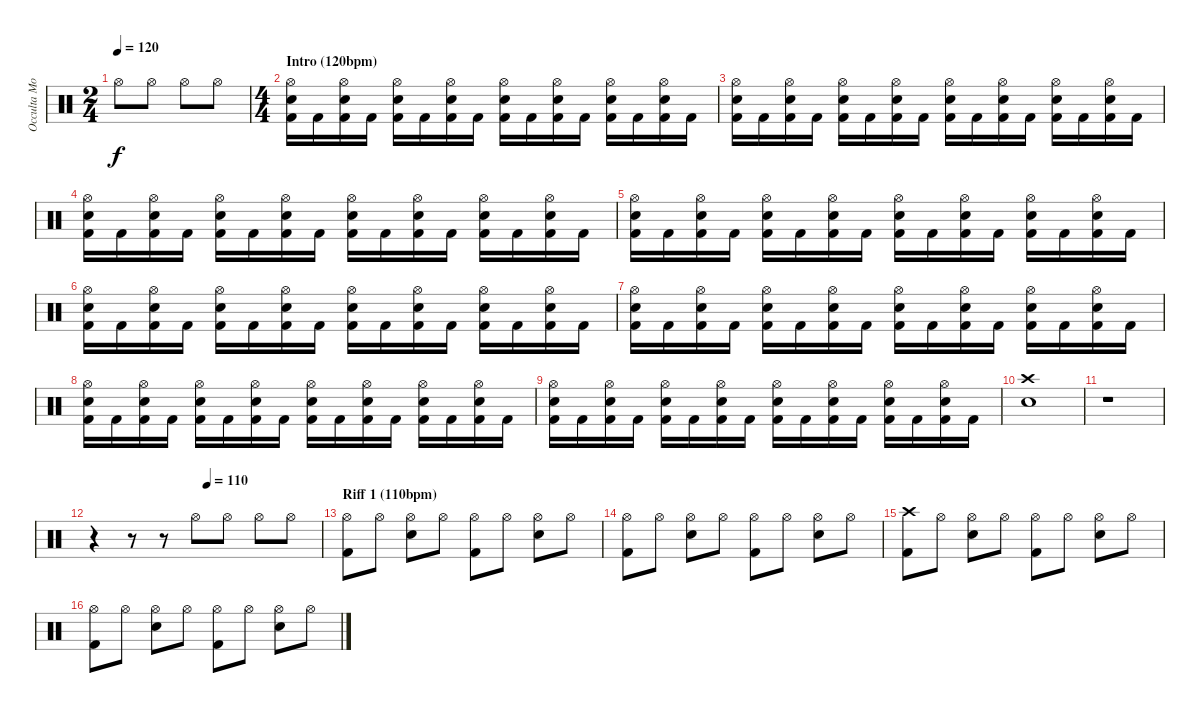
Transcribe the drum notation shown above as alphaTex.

\track ("Occulta Mors (Drums)" "Occulta Mo") {instrument percussion}
\staff {score}
\articulation defaults
\ts (2 4)
\tempo 120
\clef neutral
\ks c "Hi-Hat (open)".8{dy f} "Hi-Hat (open)".8 "Hi-Hat (open)".8 "Hi-Hat (open)".8
|
\ts (4 4)
\section ("" "Intro (120bpm)")
("Hi-Hat (open)" "Snare (hit) 2" "Kick (hit) 2").16 "Kick (hit) 2".16 ("Hi-Hat (open)" "Snare (hit) 2" "Kick (hit) 2").16 "Kick (hit) 2".16 ("Hi-Hat (open)" "Snare (hit) 2" "Kick (hit) 2").16 "Kick (hit) 2".16 ("Hi-Hat (open)" "Snare (hit) 2" "Kick (hit) 2").16 "Kick (hit) 2".16 ("Hi-Hat (open)" "Snare (hit) 2" "Kick (hit) 2").16 "Kick (hit) 2".16 ("Hi-Hat (open)" "Snare (hit) 2" "Kick (hit) 2").16 "Kick (hit) 2".16 ("Hi-Hat (open)" "Snare (hit) 2" "Kick (hit) 2").16 "Kick (hit) 2".16 ("Hi-Hat (open)" "Snare (hit) 2" "Kick (hit) 2").16 "Kick (hit) 2".16 |
("Hi-Hat (open)" "Snare (hit) 2" "Kick (hit) 2").16 "Kick (hit) 2".16 ("Hi-Hat (open)" "Snare (hit) 2" "Kick (hit) 2").16 "Kick (hit) 2".16 ("Hi-Hat (open)" "Snare (hit) 2" "Kick (hit) 2").16 "Kick (hit) 2".16 ("Hi-Hat (open)" "Snare (hit) 2" "Kick (hit) 2").16 "Kick (hit) 2".16 ("Hi-Hat (open)" "Snare (hit) 2" "Kick (hit) 2").16 "Kick (hit) 2".16 ("Hi-Hat (open)" "Snare (hit) 2" "Kick (hit) 2").16 "Kick (hit) 2".16 ("Hi-Hat (open)" "Snare (hit) 2" "Kick (hit) 2").16 "Kick (hit) 2".16 ("Hi-Hat (open)" "Snare (hit) 2" "Kick (hit) 2").16 "Kick (hit) 2".16 |
("Hi-Hat (open)" "Snare (hit) 2" "Kick (hit) 2").16 "Kick (hit) 2".16 ("Hi-Hat (open)" "Snare (hit) 2" "Kick (hit) 2").16 "Kick (hit) 2".16 ("Hi-Hat (open)" "Snare (hit) 2" "Kick (hit) 2").16 "Kick (hit) 2".16 ("Hi-Hat (open)" "Snare (hit) 2" "Kick (hit) 2").16 "Kick (hit) 2".16 ("Hi-Hat (open)" "Snare (hit) 2" "Kick (hit) 2").16 "Kick (hit) 2".16 ("Hi-Hat (open)" "Snare (hit) 2" "Kick (hit) 2").16 "Kick (hit) 2".16 ("Hi-Hat (open)" "Snare (hit) 2" "Kick (hit) 2").16 "Kick (hit) 2".16 ("Hi-Hat (open)" "Snare (hit) 2" "Kick (hit) 2").16 "Kick (hit) 2".16 |
("Hi-Hat (open)" "Snare (hit) 2" "Kick (hit) 2").16 "Kick (hit) 2".16 ("Hi-Hat (open)" "Snare (hit) 2" "Kick (hit) 2").16 "Kick (hit) 2".16 ("Hi-Hat (open)" "Snare (hit) 2" "Kick (hit) 2").16 "Kick (hit) 2".16 ("Hi-Hat (open)" "Snare (hit) 2" "Kick (hit) 2").16 "Kick (hit) 2".16 ("Hi-Hat (open)" "Snare (hit) 2" "Kick (hit) 2").16 "Kick (hit) 2".16 ("Hi-Hat (open)" "Snare (hit) 2" "Kick (hit) 2").16 "Kick (hit) 2".16 ("Hi-Hat (open)" "Snare (hit) 2" "Kick (hit) 2").16 "Kick (hit) 2".16 ("Hi-Hat (open)" "Snare (hit) 2" "Kick (hit) 2").16 "Kick (hit) 2".16 |
("Hi-Hat (open)" "Snare (hit) 2" "Kick (hit) 2").16 "Kick (hit) 2".16 ("Hi-Hat (open)" "Snare (hit) 2" "Kick (hit) 2").16 "Kick (hit) 2".16 ("Hi-Hat (open)" "Snare (hit) 2" "Kick (hit) 2").16 "Kick (hit) 2".16 ("Hi-Hat (open)" "Snare (hit) 2" "Kick (hit) 2").16 "Kick (hit) 2".16 ("Hi-Hat (open)" "Snare (hit) 2" "Kick (hit) 2").16 "Kick (hit) 2".16 ("Hi-Hat (open)" "Snare (hit) 2" "Kick (hit) 2").16 "Kick (hit) 2".16 ("Hi-Hat (open)" "Snare (hit) 2" "Kick (hit) 2").16 "Kick (hit) 2".16 ("Hi-Hat (open)" "Snare (hit) 2" "Kick (hit) 2").16 "Kick (hit) 2".16 |
("Hi-Hat (open)" "Snare (hit) 2" "Kick (hit) 2").16 "Kick (hit) 2".16 ("Hi-Hat (open)" "Snare (hit) 2" "Kick (hit) 2").16 "Kick (hit) 2".16 ("Hi-Hat (open)" "Snare (hit) 2" "Kick (hit) 2").16 "Kick (hit) 2".16 ("Hi-Hat (open)" "Snare (hit) 2" "Kick (hit) 2").16 "Kick (hit) 2".16 ("Hi-Hat (open)" "Snare (hit) 2" "Kick (hit) 2").16 "Kick (hit) 2".16 ("Hi-Hat (open)" "Snare (hit) 2" "Kick (hit) 2").16 "Kick (hit) 2".16 ("Hi-Hat (open)" "Snare (hit) 2" "Kick (hit) 2").16 "Kick (hit) 2".16 ("Hi-Hat (open)" "Snare (hit) 2" "Kick (hit) 2").16 "Kick (hit) 2".16 |
("Hi-Hat (open)" "Snare (hit) 2" "Kick (hit) 2").16 "Kick (hit) 2".16 ("Hi-Hat (open)" "Snare (hit) 2" "Kick (hit) 2").16 "Kick (hit) 2".16 ("Hi-Hat (open)" "Snare (hit) 2" "Kick (hit) 2").16 "Kick (hit) 2".16 ("Hi-Hat (open)" "Snare (hit) 2" "Kick (hit) 2").16 "Kick (hit) 2".16 ("Hi-Hat (open)" "Snare (hit) 2" "Kick (hit) 2").16 "Kick (hit) 2".16 ("Hi-Hat (open)" "Snare (hit) 2" "Kick (hit) 2").16 "Kick (hit) 2".16 ("Hi-Hat (open)" "Snare (hit) 2" "Kick (hit) 2").16 "Kick (hit) 2".16 ("Hi-Hat (open)" "Snare (hit) 2" "Kick (hit) 2").16 "Kick (hit) 2".16 |
("Hi-Hat (open)" "Snare (hit) 2" "Kick (hit) 2").16 "Kick (hit) 2".16 ("Hi-Hat (open)" "Snare (hit) 2" "Kick (hit) 2").16 "Kick (hit) 2".16 ("Hi-Hat (open)" "Snare (hit) 2" "Kick (hit) 2").16 "Kick (hit) 2".16 ("Hi-Hat (open)" "Snare (hit) 2" "Kick (hit) 2").16 "Kick (hit) 2".16 ("Hi-Hat (open)" "Snare (hit) 2" "Kick (hit) 2").16 "Kick (hit) 2".16 ("Hi-Hat (open)" "Snare (hit) 2" "Kick (hit) 2").16 "Kick (hit) 2".16 ("Hi-Hat (open)" "Snare (hit) 2" "Kick (hit) 2").16 "Kick (hit) 2".16 ("Hi-Hat (open)" "Snare (hit) 2" "Kick (hit) 2").16 "Kick (hit) 2".16 |
("Crash high (hit)" "Snare (hit) 2").1 |
r.1 |
\tempo (110 0.5)
r.4 r.8 r.8 "Hi-Hat (open)".8 "Hi-Hat (open)".8 "Hi-Hat (open)".8 "Hi-Hat (open)".8 |
\section ("" "Riff 1 (110bpm)")
("Hi-Hat (open)" "Kick (hit) 2").8 "Hi-Hat (open)".8 ("Hi-Hat (open)" "Snare (hit) 2").8 "Hi-Hat (open)".8 ("Hi-Hat (open)" "Kick (hit) 2").8 "Hi-Hat (open)".8 ("Hi-Hat (open)" "Snare (hit) 2").8 "Hi-Hat (open)".8 |
("Hi-Hat (open)" "Kick (hit) 2").8 "Hi-Hat (open)".8 ("Hi-Hat (open)" "Snare (hit) 2").8 "Hi-Hat (open)".8 ("Hi-Hat (open)" "Kick (hit) 2").8 "Hi-Hat (open)".8 ("Hi-Hat (open)" "Snare (hit) 2").8 "Hi-Hat (open)".8 |
("Crash high (hit)" "Kick (hit) 2").8 "Hi-Hat (open)".8 ("Hi-Hat (open)" "Snare (hit) 2").8 "Hi-Hat (open)".8 ("Hi-Hat (open)" "Kick (hit) 2").8 "Hi-Hat (open)".8 ("Hi-Hat (open)" "Snare (hit) 2").8 "Hi-Hat (open)".8 |
("Hi-Hat (open)" "Kick (hit) 2").8 "Hi-Hat (open)".8 ("Hi-Hat (open)" "Snare (hit) 2").8 "Hi-Hat (open)".8 ("Hi-Hat (open)" "Kick (hit) 2").8 "Hi-Hat (open)".8 ("Hi-Hat (open)" "Snare (hit) 2").8 "Hi-Hat (open)".8
